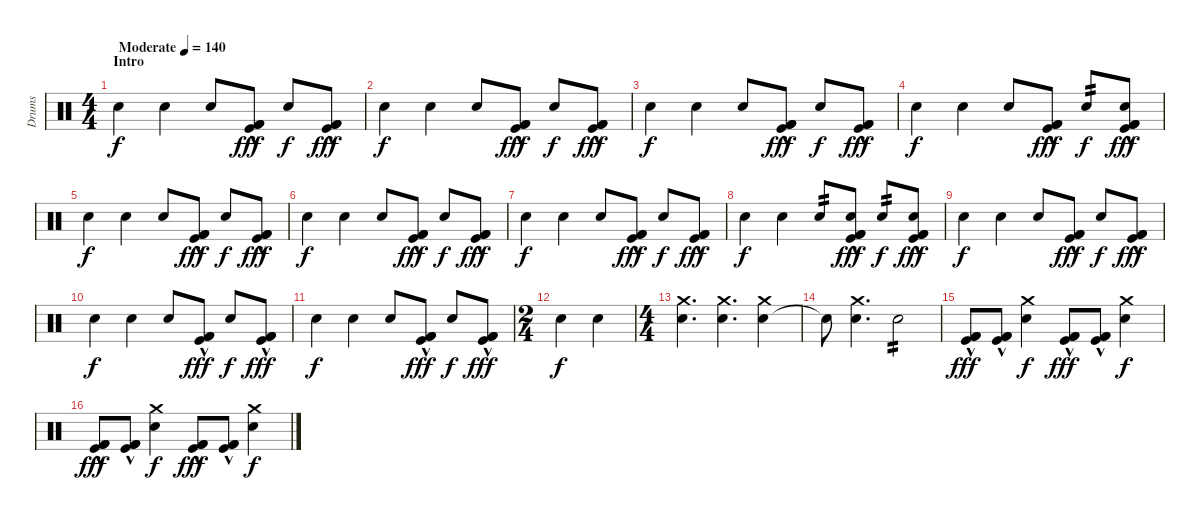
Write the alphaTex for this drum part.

\track ("Drums" "Drums") {instrument percussion}
\staff {score}
\articulation defaults
\ts (4 4)
\section ("" "Intro")
\tempo (140 "Moderate")
\clef neutral
\ks c "Snare (hit) 2".4{dy f} "Snare (hit) 2".4 "Snare (hit) 2".8
("Kick (hit) 2"{hac} "Kick (hit)"{hac} "Kick (hit) 2"{hac}).8{dy fff} "Snare (hit) 2".8{dy f} ("Kick (hit) 2"{hac} "Kick (hit)"{hac} "Kick (hit) 2"{hac}).8{dy fff} |
"Snare (hit) 2".4{dy f} "Snare (hit) 2".4 "Snare (hit) 2".8 ("Kick (hit) 2"{hac} "Kick (hit)"{hac} "Kick (hit) 2"{hac}).8{dy fff} "Snare (hit) 2".8{dy f} ("Kick (hit) 2"{hac} "Kick (hit)"{hac} "Kick (hit) 2"{hac}).8{dy fff} |
"Snare (hit) 2".4{dy f} "Snare (hit) 2".4 "Snare (hit) 2".8 ("Kick (hit) 2"{hac} "Kick (hit)"{hac} "Kick (hit) 2"{hac}).8{dy fff} "Snare (hit) 2".8{dy f} ("Kick (hit) 2"{hac} "Kick (hit)"{hac} "Kick (hit) 2"{hac}).8{dy fff} |
"Snare (hit) 2".4{dy f} "Snare (hit) 2".4 "Snare (hit) 2".8 ("Kick (hit) 2"{hac} "Kick (hit)"{hac} "Kick (hit) 2"{hac}).8{dy fff} "Snare (hit) 2".8{tp 2 dy f} ("Snare (hit) 2" "Kick (hit) 2"{hac} "Kick (hit)"{hac} "Kick (hit) 2"{hac}).8{dy fff} |
"Snare (hit) 2".4{dy f} "Snare (hit) 2".4 "Snare (hit) 2".8 ("Kick (hit) 2"{hac} "Kick (hit)"{hac} "Kick (hit) 2"{hac}).8{dy fff} "Snare (hit) 2".8{dy f} ("Kick (hit) 2"{hac} "Kick (hit)"{hac} "Kick (hit) 2"{hac}).8{dy fff} |
"Snare (hit) 2".4{dy f} "Snare (hit) 2".4 "Snare (hit) 2".8 ("Kick (hit) 2"{hac} "Kick (hit)"{hac} "Kick (hit) 2"{hac}).8{dy fff} "Snare (hit) 2".8{dy f} ("Kick (hit) 2"{hac} "Kick (hit)"{hac} "Kick (hit) 2"{hac}).8{dy fff} |
"Snare (hit) 2".4{dy f} "Snare (hit) 2".4 "Snare (hit) 2".8 ("Kick (hit) 2"{hac} "Kick (hit)"{hac} "Kick (hit) 2"{hac}).8{dy fff} "Snare (hit) 2".8{dy f} ("Kick (hit) 2"{hac} "Kick (hit)"{hac} "Kick (hit) 2"{hac}).8{dy fff} |
"Snare (hit) 2".4{dy f} "Snare (hit) 2".4 "Snare (hit) 2".8{tp 2} ("Snare (hit) 2" "Kick (hit) 2"{hac} "Kick (hit)"{hac} "Kick (hit) 2"{hac}).8{dy fff} "Snare (hit) 2".8{tp 2 dy f} ("Snare (hit) 2" "Kick (hit) 2"{hac} "Kick (hit)"{hac} "Kick (hit) 2"{hac}).8{dy fff} |
"Snare (hit) 2".4{dy f} "Snare (hit) 2".4 "Snare (hit) 2".8 ("Kick (hit) 2"{hac} "Kick (hit)"{hac} "Kick (hit) 2"{hac}).8{dy fff} "Snare (hit) 2".8{dy f} ("Kick (hit) 2"{hac} "Kick (hit)"{hac} "Kick (hit) 2"{hac}).8{dy fff} |
"Snare (hit) 2".4{dy f} "Snare (hit) 2".4 "Snare (hit) 2".8 ("Kick (hit) 2"{hac} "Kick (hit)"{hac} "Kick (hit) 2"{hac}).8{dy fff} "Snare (hit) 2".8{dy f} ("Kick (hit) 2"{hac} "Kick (hit)"{hac} "Kick (hit) 2"{hac}).8{dy fff} |
"Snare (hit) 2".4{dy f} "Snare (hit) 2".4 "Snare (hit) 2".8 ("Kick (hit) 2"{hac} "Kick (hit)"{hac} "Kick (hit) 2"{hac}).8{dy fff} "Snare (hit) 2".8{dy f} ("Kick (hit) 2"{hac} "Kick (hit)"{hac} "Kick (hit) 2"{hac}).8{dy fff} |
\ts (2 4)
"Snare (hit) 2".4{dy f} "Snare (hit) 2".4 |
\ts (4 4)
("Snare (hit) 2" "Crash medium (hit)").4{d} ("Snare (hit) 2" "Crash medium (hit)").4{d} ("Snare (hit) 2" "Crash medium (hit)").4 |
"Snare (hit)"{t}.8 ("Snare (hit) 2" "Crash medium (hit)").4{d} "Snare (hit) 2".2{tp 2} |
("Kick (hit) 2"{hac} "Kick (hit)"{hac} "Kick (hit) 2"{hac}).8{dy fff} ("Kick (hit) 2"{hac} "Kick (hit)"{hac} "Kick (hit) 2"{hac}).8 ("Snare (hit) 2" "Crash medium (hit)").4{dy f} ("Kick (hit) 2"{hac} "Kick (hit)"{hac} "Kick (hit) 2"{hac}).8{dy fff} ("Kick (hit) 2"{hac} "Kick (hit)"{hac} "Kick (hit) 2"{hac}).8 ("Snare (hit) 2" "Crash medium (hit)").4{dy f} |
("Kick (hit) 2"{hac} "Kick (hit)"{hac} "Kick (hit) 2"{hac}).8{dy fff} ("Kick (hit) 2"{hac} "Kick (hit)"{hac} "Kick (hit) 2"{hac}).8 ("Snare (hit) 2" "Crash medium (hit)").4{dy f} ("Kick (hit) 2"{hac} "Kick (hit)"{hac} "Kick (hit) 2"{hac}).8{dy fff} ("Kick (hit) 2"{hac} "Kick (hit)"{hac} "Kick (hit) 2"{hac}).8 ("Snare (hit) 2" "Crash medium (hit)").4{dy f}
